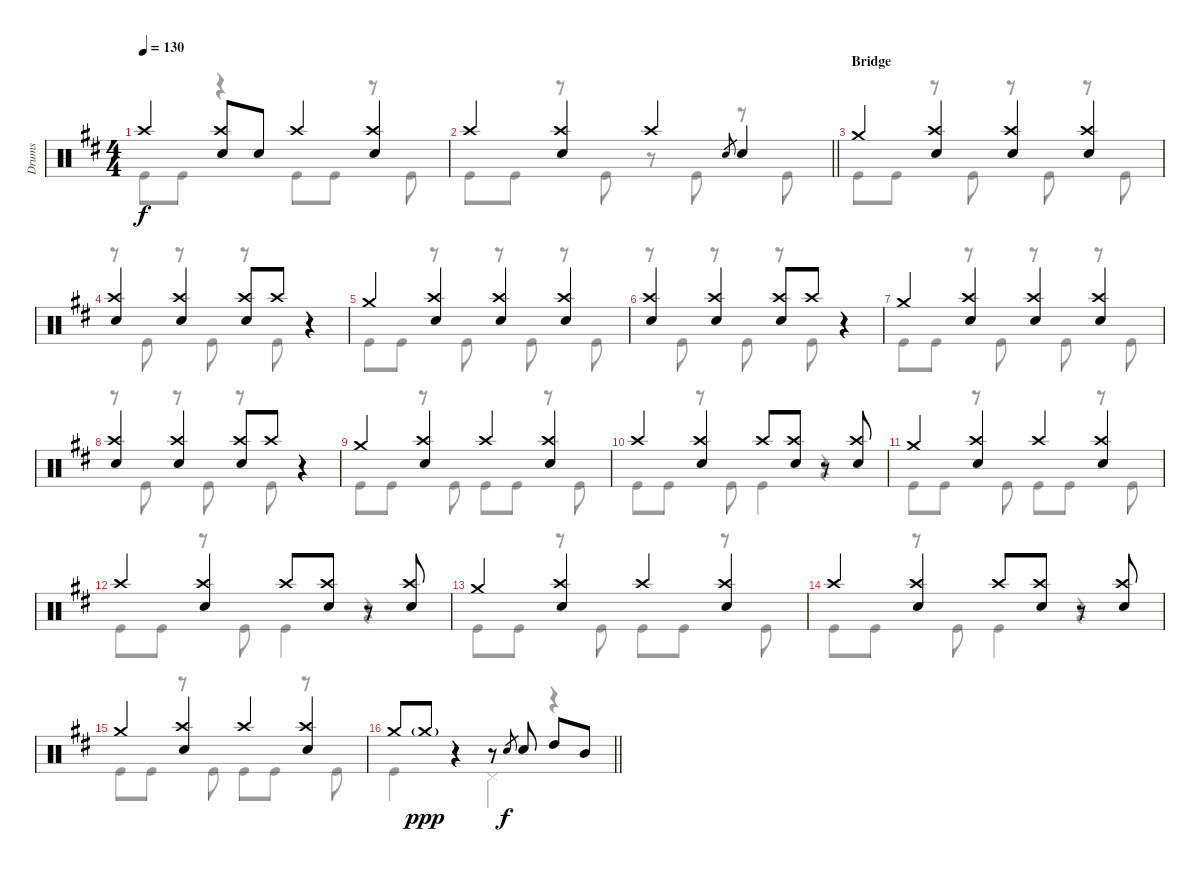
\track ("Drums" "Drums") {instrument percussion}
\staff {score}
\articulation defaults
\voice
\ts (4 4)
\tempo 130
\clef neutral
\ks d "Crash high (hit)".4{dy f}
("Crash high (hit)" "Electric Snare (hit)").8 "Electric Snare (hit)".8 "Crash high (hit)".4 ("Crash high (hit)" "Electric Snare (hit)").4 |
\barLineRight lightlight "Crash high (hit)".4
("Crash high (hit)" "Electric Snare (hit)").4 "Crash high (hit)".4 "Electric Snare (hit)".8{gr} "Electric Snare (hit)".4 |
\section ("" "Bridge")
"Crash medium (hit)".4 ("Crash high (hit)" "Electric Snare (hit)").4 ("Crash high (hit)" "Electric Snare (hit)").4 ("Crash high (hit)" "Electric Snare (hit)").4 |
("Crash high (hit)" "Electric Snare (hit)").4 ("Crash high (hit)" "Electric Snare (hit)").4 ("Crash high (hit)" "Electric Snare (hit)").8 "Crash high (hit)".8 r.4 |
"Crash medium (hit)".4 ("Crash high (hit)" "Electric Snare (hit)").4 ("Crash high (hit)" "Electric Snare (hit)").4 ("Crash high (hit)" "Electric Snare (hit)").4 |
("Crash high (hit)" "Electric Snare (hit)").4 ("Crash high (hit)" "Electric Snare (hit)").4 ("Crash high (hit)" "Electric Snare (hit)").8 "Crash high (hit)".8 r.4 |
"Crash medium (hit)".4 ("Crash high (hit)" "Electric Snare (hit)").4 ("Crash high (hit)" "Electric Snare (hit)").4 ("Crash high (hit)" "Electric Snare (hit)").4 |
("Crash high (hit)" "Electric Snare (hit)").4 ("Crash high (hit)" "Electric Snare (hit)").4 ("Crash high (hit)" "Electric Snare (hit)").8 "Crash high (hit)".8 r.4 |
"Crash medium (hit)".4 ("Crash high (hit)" "Electric Snare (hit)").4 "Crash high (hit)".4 ("Crash high (hit)" "Electric Snare (hit)").4 |
"Crash high (hit)".4 ("Crash high (hit)" "Electric Snare (hit)").4 "Crash high (hit)".8 ("Crash high (hit)" "Electric Snare (hit)").8 r.8 ("Crash high (hit)" "Electric Snare (hit)").8 |
"Crash medium (hit)".4 ("Crash high (hit)" "Electric Snare (hit)").4 "Crash high (hit)".4 ("Crash high (hit)" "Electric Snare (hit)").4 |
"Crash high (hit)".4 ("Crash high (hit)" "Electric Snare (hit)").4 "Crash high (hit)".8 ("Crash high (hit)" "Electric Snare (hit)").8 r.8 ("Crash high (hit)" "Electric Snare (hit)").8 |
"Crash medium (hit)".4 ("Crash high (hit)" "Electric Snare (hit)").4 "Crash high (hit)".4 ("Crash high (hit)" "Electric Snare (hit)").4 |
"Crash high (hit)".4 ("Crash high (hit)" "Electric Snare (hit)").4 "Crash high (hit)".8 ("Crash high (hit)" "Electric Snare (hit)").8 r.8 ("Crash high (hit)" "Electric Snare (hit)").8 |
"Crash medium (hit)".4 ("Crash high (hit)" "Electric Snare (hit)").4 "Crash high (hit)".4 ("Crash high (hit)" "Electric Snare (hit)").4 |
\barLineRight lightlight "Crash medium (hit)".8 "Crash medium (hit)"{g}.8{dy ppp}
r.4 r.8 "Electric Snare (hit)".8{gr dy f} "Electric Snare (hit)".8 "High Tom (hit)".8 "Mid Tom (hit)".8
\voice
\clef neutral
\ottava regular
\simile none
\ks d "Kick (hit)".8{dy f} "Kick (hit)".8
r.4 "Kick (hit)".8 "Kick (hit)".8 r.8 "Kick (hit)".8 |
\barLineRight lightlight "Kick (hit)".8 "Kick (hit)".8
r.8 "Kick (hit)".8 r.8 "Kick (hit)".8 r.8 "Kick (hit)".8 |
"Kick (hit)".8 "Kick (hit)".8 r.8 "Kick (hit)".8 r.8 "Kick (hit)".8 r.8 "Kick (hit)".8 |
r.8 "Kick (hit)".8 r.8 "Kick (hit)".8 r.8 "Kick (hit)".8 r.4 |
"Kick (hit)".8 "Kick (hit)".8 r.8 "Kick (hit)".8 r.8 "Kick (hit)".8 r.8 "Kick (hit)".8 |
r.8 "Kick (hit)".8 r.8 "Kick (hit)".8 r.8 "Kick (hit)".8 r.4 |
"Kick (hit)".8 "Kick (hit)".8 r.8 "Kick (hit)".8 r.8 "Kick (hit)".8 r.8 "Kick (hit)".8 |
r.8 "Kick (hit)".8 r.8 "Kick (hit)".8 r.8 "Kick (hit)".8 r.4 |
"Kick (hit)".8 "Kick (hit)".8 r.8 "Kick (hit)".8 "Kick (hit)".8 "Kick (hit)".8 r.8 "Kick (hit)".8 |
"Kick (hit)".8 "Kick (hit)".8 r.8 "Kick (hit)".8 "Kick (hit)".4 r.4 |
"Kick (hit)".8 "Kick (hit)".8 r.8 "Kick (hit)".8 "Kick (hit)".8 "Kick (hit)".8 r.8 "Kick (hit)".8 |
"Kick (hit)".8 "Kick (hit)".8 r.8 "Kick (hit)".8 "Kick (hit)".4 r.4 |
"Kick (hit)".8 "Kick (hit)".8 r.8 "Kick (hit)".8 "Kick (hit)".8 "Kick (hit)".8 r.8 "Kick (hit)".8 |
"Kick (hit)".8 "Kick (hit)".8 r.8 "Kick (hit)".8 "Kick (hit)".4 r.4 |
"Kick (hit)".8 "Kick (hit)".8 r.8 "Kick (hit)".8 "Kick (hit)".8 "Kick (hit)".8 r.8 "Kick (hit)".8 |
\barLineRight lightlight "Kick (hit)".4
r.4 "Pedal Hi-Hat (hit)".4 r.4
